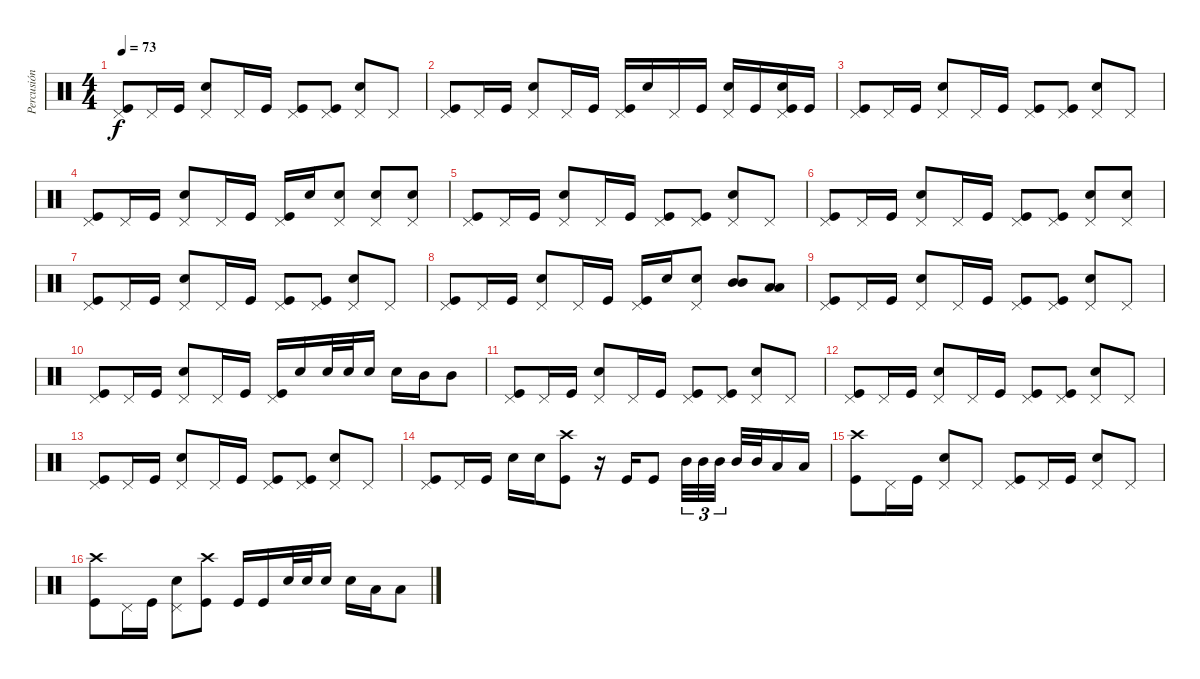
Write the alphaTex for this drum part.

\track ("Percusión" "Percusión") {instrument percussion}
\staff {score}
\articulation defaults
\ts (4 4)
\tempo 73
\clef neutral
\ks c
("Pedal Hi-Hat (hit)" "Kick (hit)").8{dy f} "Pedal Hi-Hat (hit)".16 "Kick (hit)".16 ("Pedal Hi-Hat (hit)" "Electric Snare (hit)").8 "Pedal Hi-Hat (hit)".16 "Kick (hit)".16 ("Pedal Hi-Hat (hit)" "Kick (hit)").8 ("Pedal Hi-Hat (hit)" "Kick (hit)").8 ("Pedal Hi-Hat (hit)" "Electric Snare (hit)").8 "Pedal Hi-Hat (hit)".8 |
("Pedal Hi-Hat (hit)" "Kick (hit)").8 "Pedal Hi-Hat (hit)".16 "Kick (hit)".16 ("Pedal Hi-Hat (hit)" "Electric Snare (hit)").8 "Pedal Hi-Hat (hit)".16 "Kick (hit)".16 ("Pedal Hi-Hat (hit)" "Kick (hit)").16 "Electric Snare (hit)".16 "Pedal Hi-Hat (hit)".16 "Kick (hit)".16 ("Pedal Hi-Hat (hit)" "Electric Snare (hit)").16 "Kick (hit)".16 ("Pedal Hi-Hat (hit)" "Electric Snare (hit)" "Kick (hit)").16 "Kick (hit)".16 |
("Pedal Hi-Hat (hit)" "Kick (hit)").8 "Pedal Hi-Hat (hit)".16 "Kick (hit)".16 ("Pedal Hi-Hat (hit)" "Electric Snare (hit)").8 "Pedal Hi-Hat (hit)".16 "Kick (hit)".16 ("Pedal Hi-Hat (hit)" "Kick (hit)").8 ("Pedal Hi-Hat (hit)" "Kick (hit)").8 ("Pedal Hi-Hat (hit)" "Electric Snare (hit)").8 "Pedal Hi-Hat (hit)".8 |
("Pedal Hi-Hat (hit)" "Kick (hit)").8 "Pedal Hi-Hat (hit)".16 "Kick (hit)".16 ("Pedal Hi-Hat (hit)" "Electric Snare (hit)").8 "Pedal Hi-Hat (hit)".16 "Kick (hit)".16 ("Pedal Hi-Hat (hit)" "Kick (hit)").16 "Electric Snare (hit)".16 ("Pedal Hi-Hat (hit)" "Electric Snare (hit)").8 ("Pedal Hi-Hat (hit)" "Electric Snare (hit)").8 ("Pedal Hi-Hat (hit)" "Electric Snare (hit)").8 |
("Pedal Hi-Hat (hit)" "Kick (hit)").8 "Pedal Hi-Hat (hit)".16 "Kick (hit)".16 ("Pedal Hi-Hat (hit)" "Electric Snare (hit)").8 "Pedal Hi-Hat (hit)".16 "Kick (hit)".16 ("Pedal Hi-Hat (hit)" "Kick (hit)").8 ("Pedal Hi-Hat (hit)" "Kick (hit)").8 ("Pedal Hi-Hat (hit)" "Electric Snare (hit)").8 "Pedal Hi-Hat (hit)".8 |
("Pedal Hi-Hat (hit)" "Kick (hit)").8 "Pedal Hi-Hat (hit)".16 "Kick (hit)".16 ("Pedal Hi-Hat (hit)" "Electric Snare (hit)").8 "Pedal Hi-Hat (hit)".16 "Kick (hit)".16 ("Pedal Hi-Hat (hit)" "Kick (hit)").8 ("Pedal Hi-Hat (hit)" "Kick (hit)").8 ("Pedal Hi-Hat (hit)" "Electric Snare (hit)").8 ("Pedal Hi-Hat (hit)" "Electric Snare (hit)").8 |
("Pedal Hi-Hat (hit)" "Kick (hit)").8 "Pedal Hi-Hat (hit)".16 "Kick (hit)".16 ("Pedal Hi-Hat (hit)" "Electric Snare (hit)").8 "Pedal Hi-Hat (hit)".16 "Kick (hit)".16 ("Pedal Hi-Hat (hit)" "Kick (hit)").8 ("Pedal Hi-Hat (hit)" "Kick (hit)").8 ("Pedal Hi-Hat (hit)" "Electric Snare (hit)").8 "Pedal Hi-Hat (hit)".8 |
("Pedal Hi-Hat (hit)" "Kick (hit)").8 "Pedal Hi-Hat (hit)".16 "Kick (hit)".16 ("Pedal Hi-Hat (hit)" "Electric Snare (hit)").8 "Pedal Hi-Hat (hit)".16 "Kick (hit)".16 ("Pedal Hi-Hat (hit)" "Kick (hit)").16 "Electric Snare (hit)".16 ("Pedal Hi-Hat (hit)" "Electric Snare (hit)").8 ("Mid Tom (hit)" "Mid Tom (hit)").8 ("Low Tom (hit)" "Low Tom (hit)").8 |
("Pedal Hi-Hat (hit)" "Kick (hit)").8 "Pedal Hi-Hat (hit)".16 "Kick (hit)".16 ("Pedal Hi-Hat (hit)" "Electric Snare (hit)").8 "Pedal Hi-Hat (hit)".16 "Kick (hit)".16 ("Pedal Hi-Hat (hit)" "Kick (hit)").8 ("Pedal Hi-Hat (hit)" "Kick (hit)").8 ("Pedal Hi-Hat (hit)" "Electric Snare (hit)").8 "Pedal Hi-Hat (hit)".8 |
("Pedal Hi-Hat (hit)" "Kick (hit)").8 "Pedal Hi-Hat (hit)".16 "Kick (hit)".16 ("Pedal Hi-Hat (hit)" "Electric Snare (hit)").8 "Pedal Hi-Hat (hit)".16 "Kick (hit)".16 ("Pedal Hi-Hat (hit)" "Kick (hit)").16 "Electric Snare (hit)".16 "Electric Snare (hit)".32 "Electric Snare (hit)".32 "Electric Snare (hit)".16 "Electric Snare (hit)".16 "Mid Tom (hit)".16 "Mid Tom (hit)".8 |
("Pedal Hi-Hat (hit)" "Kick (hit)").8 "Pedal Hi-Hat (hit)".16 "Kick (hit)".16 ("Pedal Hi-Hat (hit)" "Electric Snare (hit)").8 "Pedal Hi-Hat (hit)".16 "Kick (hit)".16 ("Pedal Hi-Hat (hit)" "Kick (hit)").8 ("Pedal Hi-Hat (hit)" "Kick (hit)").8 ("Pedal Hi-Hat (hit)" "Electric Snare (hit)").8 "Pedal Hi-Hat (hit)".8 |
("Pedal Hi-Hat (hit)" "Kick (hit)").8 "Pedal Hi-Hat (hit)".16 "Kick (hit)".16 ("Pedal Hi-Hat (hit)" "Electric Snare (hit)").8 "Pedal Hi-Hat (hit)".16 "Kick (hit)".16 ("Pedal Hi-Hat (hit)" "Kick (hit)").8 ("Pedal Hi-Hat (hit)" "Kick (hit)").8 ("Pedal Hi-Hat (hit)" "Electric Snare (hit)").8 "Pedal Hi-Hat (hit)".8 |
("Pedal Hi-Hat (hit)" "Kick (hit)").8 "Pedal Hi-Hat (hit)".16 "Kick (hit)".16 ("Pedal Hi-Hat (hit)" "Electric Snare (hit)").8 "Pedal Hi-Hat (hit)".16 "Kick (hit)".16 ("Pedal Hi-Hat (hit)" "Kick (hit)").8 ("Pedal Hi-Hat (hit)" "Kick (hit)").8 ("Pedal Hi-Hat (hit)" "Electric Snare (hit)").8 "Pedal Hi-Hat (hit)".8 |
("Pedal Hi-Hat (hit)" "Kick (hit)").8 "Pedal Hi-Hat (hit)".16 "Kick (hit)".16 "Electric Snare (hit)".16 "Electric Snare (hit)".16 ("Crash high (hit)" "Kick (hit)").8 r.16 "Kick (hit)".16 "Kick (hit)".8 "Mid Tom (hit)".32{tu (3 2)} "Mid Tom (hit)".32{tu (3 2)} "Mid Tom (hit)".32{tu (3 2)} "Mid Tom (hit)".32 "Mid Tom (hit)".32 "Low Tom (hit)".16 "Low Tom (hit)".16 |
("Crash high (hit)" "Kick (hit)").8 "Pedal Hi-Hat (hit)".16 "Kick (hit)".16 ("Pedal Hi-Hat (hit)" "Electric Snare (hit)").8 "Pedal Hi-Hat (hit)".8 ("Pedal Hi-Hat (hit)" "Kick (hit)").8 "Pedal Hi-Hat (hit)".16 "Kick (hit)".16 ("Pedal Hi-Hat (hit)" "Electric Snare (hit)").8 "Pedal Hi-Hat (hit)".8 |
("Crash high (hit)" "Kick (hit)").8 "Pedal Hi-Hat (hit)".16 "Kick (hit)".16 ("Pedal Hi-Hat (hit)" "Electric Snare (hit)").8 ("Crash high (hit)" "Kick (hit)").8 "Kick (hit)".16 "Kick (hit)".16 "Electric Snare (hit)".32 "Electric Snare (hit)".32 "Electric Snare (hit)".16 "Electric Snare (hit)".16 "Low Tom (hit)".16 "Low Tom (hit)".8
